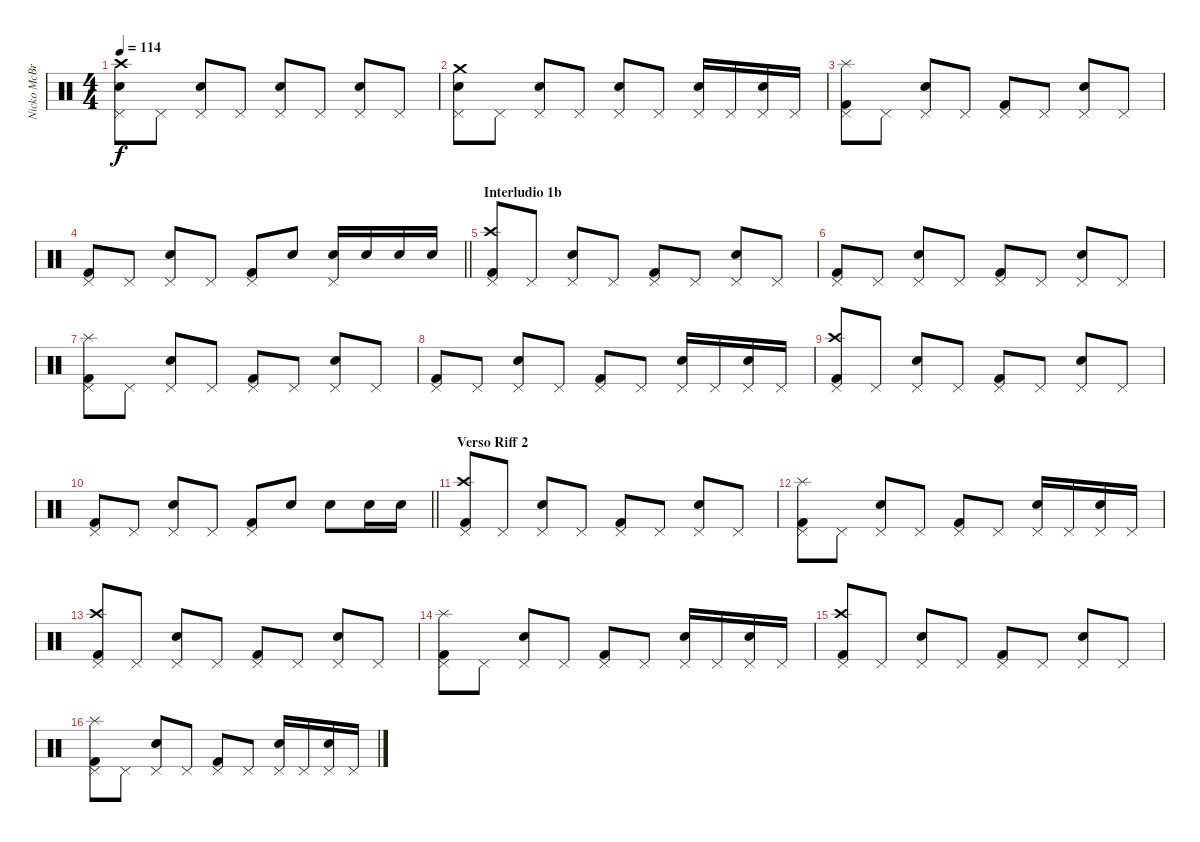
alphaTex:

\track ("Nicko McBrain" "Nicko McBr") {instrument percussion}
\staff {score}
\articulation defaults
\ts (4 4)
\tempo 114
\clef neutral
\ks c
("Snare (hit) 2" "Pedal Hi-Hat (hit)" "Crash high (hit)").8{dy f} "Pedal Hi-Hat (hit)".8 ("Snare (hit) 2" "Pedal Hi-Hat (hit)").8 "Pedal Hi-Hat (hit)".8 ("Snare (hit) 2" "Pedal Hi-Hat (hit)").8 "Pedal Hi-Hat (hit)".8 ("Snare (hit) 2" "Pedal Hi-Hat (hit)").8 "Pedal Hi-Hat (hit)".8 |
("Snare (hit) 2" "Pedal Hi-Hat (hit)" "Crash medium (hit)").8 "Pedal Hi-Hat (hit)".8 ("Snare (hit) 2" "Pedal Hi-Hat (hit)").8 "Pedal Hi-Hat (hit)".8 ("Snare (hit) 2" "Pedal Hi-Hat (hit)").8 "Pedal Hi-Hat (hit)".8 ("Snare (hit) 2" "Pedal Hi-Hat (hit)").16 "Pedal Hi-Hat (hit)".16 ("Snare (hit) 2" "Pedal Hi-Hat (hit)").16 "Pedal Hi-Hat (hit)".16 |
("Kick (hit) 2" "Pedal Hi-Hat (hit)" "Splash (hit)").8 "Pedal Hi-Hat (hit)".8 ("Snare (hit) 2" "Pedal Hi-Hat (hit)").8 "Pedal Hi-Hat (hit)".8 ("Kick (hit) 2" "Pedal Hi-Hat (hit)").8 "Pedal Hi-Hat (hit)".8 ("Snare (hit) 2" "Pedal Hi-Hat (hit)").8 "Pedal Hi-Hat (hit)".8 |
\barLineRight lightlight
("Kick (hit) 2" "Pedal Hi-Hat (hit)").8 "Pedal Hi-Hat (hit)".8 ("Snare (hit) 2" "Pedal Hi-Hat (hit)").8 "Pedal Hi-Hat (hit)".8 ("Kick (hit) 2" "Pedal Hi-Hat (hit)").8 "Snare (hit) 2".8 ("Snare (hit) 2" "Pedal Hi-Hat (hit)").16 "Snare (hit) 2".16 "Snare (hit) 2".16 "Snare (hit) 2".16 |
\section ("" "Interludio 1b")
("Kick (hit) 2" "Pedal Hi-Hat (hit)" "Crash high (hit)").8 "Pedal Hi-Hat (hit)".8 ("Snare (hit) 2" "Pedal Hi-Hat (hit)").8 "Pedal Hi-Hat (hit)".8 ("Kick (hit) 2" "Pedal Hi-Hat (hit)").8 "Pedal Hi-Hat (hit)".8 ("Snare (hit) 2" "Pedal Hi-Hat (hit)").8 "Pedal Hi-Hat (hit)".8 |
("Kick (hit) 2" "Pedal Hi-Hat (hit)").8 "Pedal Hi-Hat (hit)".8 ("Snare (hit) 2" "Pedal Hi-Hat (hit)").8 "Pedal Hi-Hat (hit)".8 ("Kick (hit) 2" "Pedal Hi-Hat (hit)").8 "Pedal Hi-Hat (hit)".8 ("Snare (hit) 2" "Pedal Hi-Hat (hit)").8 "Pedal Hi-Hat (hit)".8 |
("Kick (hit) 2" "Pedal Hi-Hat (hit)" "Splash (hit)").8 "Pedal Hi-Hat (hit)".8 ("Snare (hit) 2" "Pedal Hi-Hat (hit)").8 "Pedal Hi-Hat (hit)".8 ("Kick (hit) 2" "Pedal Hi-Hat (hit)").8 "Pedal Hi-Hat (hit)".8 ("Snare (hit) 2" "Pedal Hi-Hat (hit)").8 "Pedal Hi-Hat (hit)".8 |
("Kick (hit) 2" "Pedal Hi-Hat (hit)").8 "Pedal Hi-Hat (hit)".8 ("Snare (hit) 2" "Pedal Hi-Hat (hit)").8 "Pedal Hi-Hat (hit)".8 ("Kick (hit) 2" "Pedal Hi-Hat (hit)").8 "Pedal Hi-Hat (hit)".8 ("Snare (hit) 2" "Pedal Hi-Hat (hit)").16 "Pedal Hi-Hat (hit)".16 ("Snare (hit) 2" "Pedal Hi-Hat (hit)").16 "Pedal Hi-Hat (hit)".16 |
("Kick (hit) 2" "Pedal Hi-Hat (hit)" "Crash high (hit)").8 "Pedal Hi-Hat (hit)".8 ("Snare (hit) 2" "Pedal Hi-Hat (hit)").8 "Pedal Hi-Hat (hit)".8 ("Kick (hit) 2" "Pedal Hi-Hat (hit)").8 "Pedal Hi-Hat (hit)".8 ("Snare (hit) 2" "Pedal Hi-Hat (hit)").8 "Pedal Hi-Hat (hit)".8 |
\barLineRight lightlight
("Kick (hit) 2" "Pedal Hi-Hat (hit)").8 "Pedal Hi-Hat (hit)".8 ("Snare (hit) 2" "Pedal Hi-Hat (hit)").8 "Pedal Hi-Hat (hit)".8 ("Kick (hit) 2" "Pedal Hi-Hat (hit)").8 "Snare (hit) 2".8 "Snare (hit) 2".8 "Snare (hit) 2".16 "Snare (hit) 2".16 |
\section ("" "Verso Riff 2")
("Kick (hit) 2" "Pedal Hi-Hat (hit)" "Crash high (hit)").8 "Pedal Hi-Hat (hit)".8 ("Snare (hit) 2" "Pedal Hi-Hat (hit)").8 "Pedal Hi-Hat (hit)".8 ("Kick (hit) 2" "Pedal Hi-Hat (hit)").8 "Pedal Hi-Hat (hit)".8 ("Snare (hit) 2" "Pedal Hi-Hat (hit)").8 "Pedal Hi-Hat (hit)".8 |
("Kick (hit) 2" "Pedal Hi-Hat (hit)" "Splash (hit)").8 "Pedal Hi-Hat (hit)".8 ("Snare (hit) 2" "Pedal Hi-Hat (hit)").8 "Pedal Hi-Hat (hit)".8 ("Kick (hit) 2" "Pedal Hi-Hat (hit)").8 "Pedal Hi-Hat (hit)".8 ("Snare (hit) 2" "Pedal Hi-Hat (hit)").16 "Pedal Hi-Hat (hit)".16 ("Snare (hit) 2" "Pedal Hi-Hat (hit)").16 "Pedal Hi-Hat (hit)".16 |
("Kick (hit) 2" "Pedal Hi-Hat (hit)" "Crash high (hit)").8 "Pedal Hi-Hat (hit)".8 ("Snare (hit) 2" "Pedal Hi-Hat (hit)").8 "Pedal Hi-Hat (hit)".8 ("Kick (hit) 2" "Pedal Hi-Hat (hit)").8 "Pedal Hi-Hat (hit)".8 ("Snare (hit) 2" "Pedal Hi-Hat (hit)").8 "Pedal Hi-Hat (hit)".8 |
("Kick (hit) 2" "Pedal Hi-Hat (hit)" "Splash (hit)").8 "Pedal Hi-Hat (hit)".8 ("Snare (hit) 2" "Pedal Hi-Hat (hit)").8 "Pedal Hi-Hat (hit)".8 ("Kick (hit) 2" "Pedal Hi-Hat (hit)").8 "Pedal Hi-Hat (hit)".8 ("Snare (hit) 2" "Pedal Hi-Hat (hit)").16 "Pedal Hi-Hat (hit)".16 ("Snare (hit) 2" "Pedal Hi-Hat (hit)").16 "Pedal Hi-Hat (hit)".16 |
("Kick (hit) 2" "Pedal Hi-Hat (hit)" "Crash high (hit)").8 "Pedal Hi-Hat (hit)".8 ("Snare (hit) 2" "Pedal Hi-Hat (hit)").8 "Pedal Hi-Hat (hit)".8 ("Kick (hit) 2" "Pedal Hi-Hat (hit)").8 "Pedal Hi-Hat (hit)".8 ("Snare (hit) 2" "Pedal Hi-Hat (hit)").8 "Pedal Hi-Hat (hit)".8 |
("Kick (hit) 2" "Pedal Hi-Hat (hit)" "Splash (hit)").8 "Pedal Hi-Hat (hit)".8 ("Snare (hit) 2" "Pedal Hi-Hat (hit)").8 "Pedal Hi-Hat (hit)".8 ("Kick (hit) 2" "Pedal Hi-Hat (hit)").8 "Pedal Hi-Hat (hit)".8 ("Snare (hit) 2" "Pedal Hi-Hat (hit)").16 "Pedal Hi-Hat (hit)".16 ("Snare (hit) 2" "Pedal Hi-Hat (hit)").16 "Pedal Hi-Hat (hit)".16
